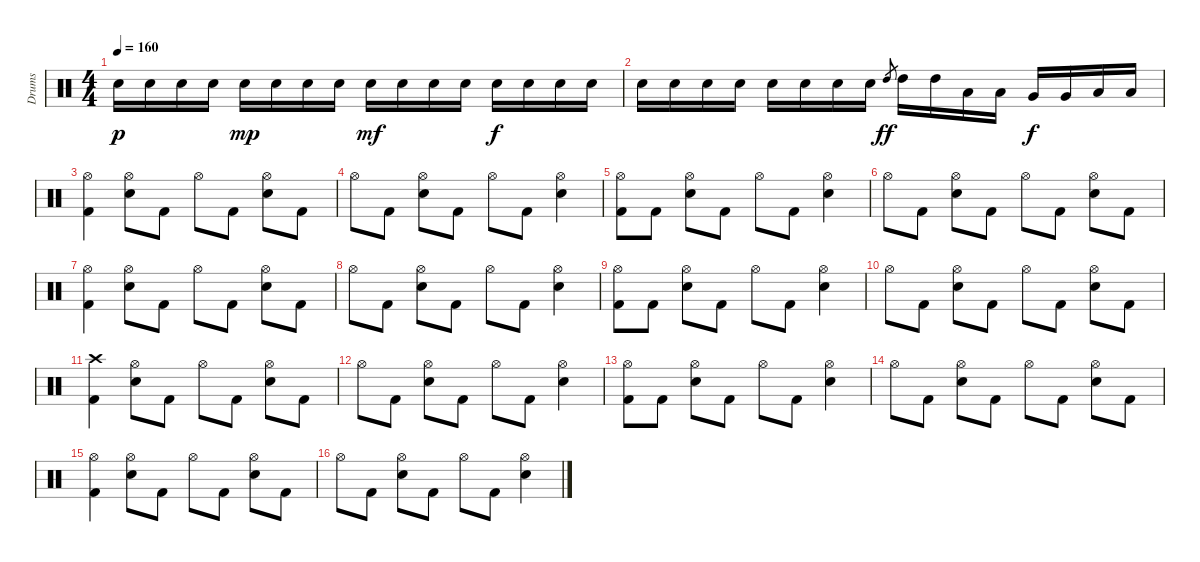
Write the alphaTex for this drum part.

\track ("Drums" "Drums") {instrument percussion}
\staff {score}
\articulation defaults
\ts (4 4)
\tempo 160
\clef neutral
\ks c "Electric Snare (hit)".16{dy p} "Electric Snare (hit)".16 "Electric Snare (hit)".16 "Electric Snare (hit)".16 "Electric Snare (hit)".16{dy mp} "Electric Snare (hit)".16 "Electric Snare (hit)".16 "Electric Snare (hit)".16 "Electric Snare (hit)".16{dy mf} "Electric Snare (hit)".16 "Electric Snare (hit)".16 "Electric Snare (hit)".16 "Electric Snare (hit)".16{dy f} "Electric Snare (hit)".16 "Electric Snare (hit)".16 "Electric Snare (hit)".16
|
"Electric Snare (hit)".16 "Electric Snare (hit)".16 "Electric Snare (hit)".16 "Electric Snare (hit)".16 "Electric Snare (hit)".16 "Electric Snare (hit)".16 "Electric Snare (hit)".16 "Electric Snare (hit)".16 "High Tom (hit)".8{gr dy ff} "High Tom (hit)".16 "High Tom (hit)".16 "Low Tom (hit)".16 "Low Tom (hit)".16 "Very Low Tom (hit)".16{dy f} "Very Low Tom (hit)".16 "Low Floor Tom (hit)".16 "Low Floor Tom (hit)".16 |
("Hi-Hat (open)" "Kick (hit) 2").4 ("Hi-Hat (open)" "Electric Snare (hit)").8 "Kick (hit) 2".8 "Hi-Hat (open)".8 "Kick (hit) 2".8 ("Hi-Hat (open)" "Electric Snare (hit)").8 "Kick (hit) 2".8 |
"Hi-Hat (open)".8 "Kick (hit) 2".8 ("Hi-Hat (open)" "Electric Snare (hit)").8 "Kick (hit) 2".8 "Hi-Hat (open)".8 "Kick (hit) 2".8 ("Hi-Hat (open)" "Electric Snare (hit)").4 |
("Hi-Hat (open)" "Kick (hit) 2").8 "Kick (hit) 2".8 ("Hi-Hat (open)" "Electric Snare (hit)").8 "Kick (hit) 2".8 "Hi-Hat (open)".8 "Kick (hit) 2".8 ("Hi-Hat (open)" "Electric Snare (hit)").4 |
"Hi-Hat (open)".8 "Kick (hit) 2".8 ("Hi-Hat (open)" "Electric Snare (hit)").8 "Kick (hit) 2".8 "Hi-Hat (open)".8 "Kick (hit) 2".8 ("Hi-Hat (open)" "Electric Snare (hit)").8 "Kick (hit) 2".8 |
("Hi-Hat (open)" "Kick (hit) 2").4 ("Hi-Hat (open)" "Electric Snare (hit)").8 "Kick (hit) 2".8 "Hi-Hat (open)".8 "Kick (hit) 2".8 ("Hi-Hat (open)" "Electric Snare (hit)").8 "Kick (hit) 2".8 |
"Hi-Hat (open)".8 "Kick (hit) 2".8 ("Hi-Hat (open)" "Electric Snare (hit)").8 "Kick (hit) 2".8 "Hi-Hat (open)".8 "Kick (hit) 2".8 ("Hi-Hat (open)" "Electric Snare (hit)").4 |
("Hi-Hat (open)" "Kick (hit) 2").8 "Kick (hit) 2".8 ("Hi-Hat (open)" "Electric Snare (hit)").8 "Kick (hit) 2".8 "Hi-Hat (open)".8 "Kick (hit) 2".8 ("Hi-Hat (open)" "Electric Snare (hit)").4 |
"Hi-Hat (open)".8 "Kick (hit) 2".8 ("Hi-Hat (open)" "Electric Snare (hit)").8 "Kick (hit) 2".8 "Hi-Hat (open)".8 "Kick (hit) 2".8 ("Hi-Hat (open)" "Electric Snare (hit)").8 "Kick (hit) 2".8 |
("Crash high (hit)" "Kick (hit) 2").4 ("Hi-Hat (open)" "Electric Snare (hit)").8 "Kick (hit) 2".8 "Hi-Hat (open)".8 "Kick (hit) 2".8 ("Hi-Hat (open)" "Electric Snare (hit)").8 "Kick (hit) 2".8 |
"Hi-Hat (open)".8 "Kick (hit) 2".8 ("Hi-Hat (open)" "Electric Snare (hit)").8 "Kick (hit) 2".8 "Hi-Hat (open)".8 "Kick (hit) 2".8 ("Hi-Hat (open)" "Electric Snare (hit)").4 |
("Hi-Hat (open)" "Kick (hit) 2").8 "Kick (hit) 2".8 ("Hi-Hat (open)" "Electric Snare (hit)").8 "Kick (hit) 2".8 "Hi-Hat (open)".8 "Kick (hit) 2".8 ("Hi-Hat (open)" "Electric Snare (hit)").4 |
"Hi-Hat (open)".8 "Kick (hit) 2".8 ("Hi-Hat (open)" "Electric Snare (hit)").8 "Kick (hit) 2".8 "Hi-Hat (open)".8 "Kick (hit) 2".8 ("Hi-Hat (open)" "Electric Snare (hit)").8 "Kick (hit) 2".8 |
("Hi-Hat (open)" "Kick (hit) 2").4 ("Hi-Hat (open)" "Electric Snare (hit)").8 "Kick (hit) 2".8 "Hi-Hat (open)".8 "Kick (hit) 2".8 ("Hi-Hat (open)" "Electric Snare (hit)").8 "Kick (hit) 2".8 |
"Hi-Hat (open)".8 "Kick (hit) 2".8 ("Hi-Hat (open)" "Electric Snare (hit)").8 "Kick (hit) 2".8 "Hi-Hat (open)".8 "Kick (hit) 2".8 ("Hi-Hat (open)" "Electric Snare (hit)").4
